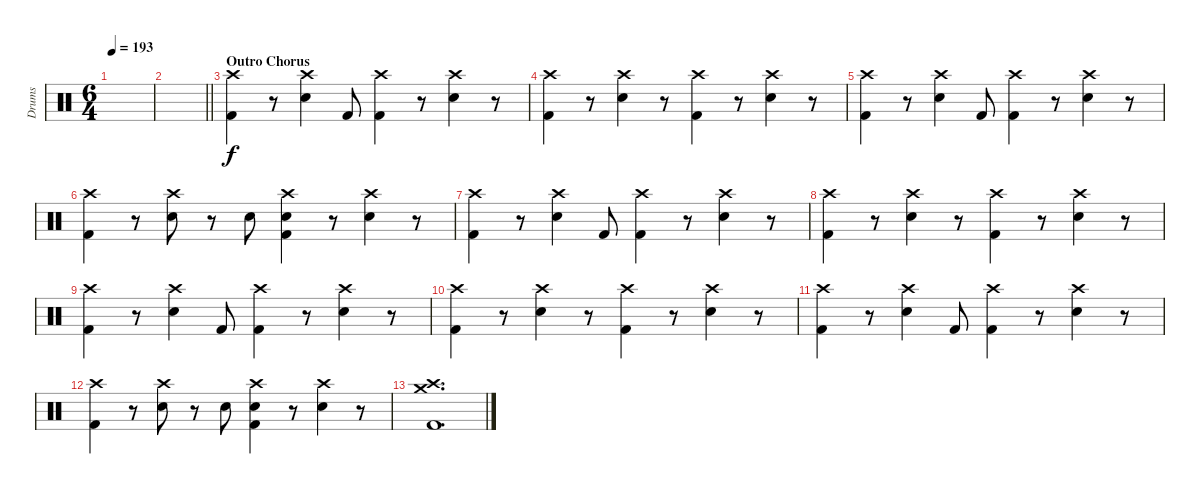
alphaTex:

\track ("Drums" "Drums") {instrument percussion}
\staff {score}
\articulation defaults
\ts (6 4)
\tempo 193
\clef neutral
\ks c
|
\barLineRight lightlight
|
\section ("" "Outro Chorus")
("Crash high (hit)" "Kick (hit) 2").4 r.8 ("Crash high (hit)" "Electric Snare (hit)").4 "Kick (hit) 2".8 ("Crash high (hit)" "Kick (hit) 2").4 r.8 ("Crash high (hit)" "Electric Snare (hit)").4 r.8 |
("Crash high (hit)" "Kick (hit) 2").4 r.8 ("Crash high (hit)" "Electric Snare (hit)").4 r.8 ("Crash high (hit)" "Kick (hit) 2").4 r.8 ("Crash high (hit)" "Electric Snare (hit)").4 r.8 |
("Crash high (hit)" "Kick (hit) 2").4 r.8 ("Crash high (hit)" "Electric Snare (hit)").4 "Kick (hit) 2".8 ("Crash high (hit)" "Kick (hit) 2").4 r.8 ("Crash high (hit)" "Electric Snare (hit)").4 r.8 |
("Crash high (hit)" "Kick (hit) 2").4 r.8 ("Crash high (hit)" "Electric Snare (hit)").8 r.8 "Electric Snare (hit)".8 ("Crash high (hit)" "Electric Snare (hit)" "Kick (hit) 2").4 r.8 ("Crash high (hit)" "Electric Snare (hit)").4 r.8 |
("Crash high (hit)" "Kick (hit) 2").4 r.8 ("Crash high (hit)" "Electric Snare (hit)").4 "Kick (hit) 2".8 ("Crash high (hit)" "Kick (hit) 2").4 r.8 ("Crash high (hit)" "Electric Snare (hit)").4 r.8 |
("Crash high (hit)" "Kick (hit) 2").4 r.8 ("Crash high (hit)" "Electric Snare (hit)").4 r.8 ("Crash high (hit)" "Kick (hit) 2").4 r.8 ("Crash high (hit)" "Electric Snare (hit)").4 r.8 |
("Crash high (hit)" "Kick (hit) 2").4 r.8 ("Crash high (hit)" "Electric Snare (hit)").4 "Kick (hit) 2".8 ("Crash high (hit)" "Kick (hit) 2").4 r.8 ("Crash high (hit)" "Electric Snare (hit)").4 r.8 |
("Crash high (hit)" "Kick (hit) 2").4 r.8 ("Crash high (hit)" "Electric Snare (hit)").4 r.8 ("Crash high (hit)" "Kick (hit) 2").4 r.8 ("Crash high (hit)" "Electric Snare (hit)").4 r.8 |
("Crash high (hit)" "Kick (hit) 2").4 r.8 ("Crash high (hit)" "Electric Snare (hit)").4 "Kick (hit) 2".8 ("Crash high (hit)" "Kick (hit) 2").4 r.8 ("Crash high (hit)" "Electric Snare (hit)").4 r.8 |
("Crash high (hit)" "Kick (hit) 2").4 r.8 ("Crash high (hit)" "Electric Snare (hit)").8 r.8 "Electric Snare (hit)".8 ("Crash high (hit)" "Electric Snare (hit)" "Kick (hit) 2").4 r.8 ("Crash high (hit)" "Electric Snare (hit)").4 r.8 |
("Crash high (hit)" "Crash medium (hit)" "Kick (hit) 2").1{d}
